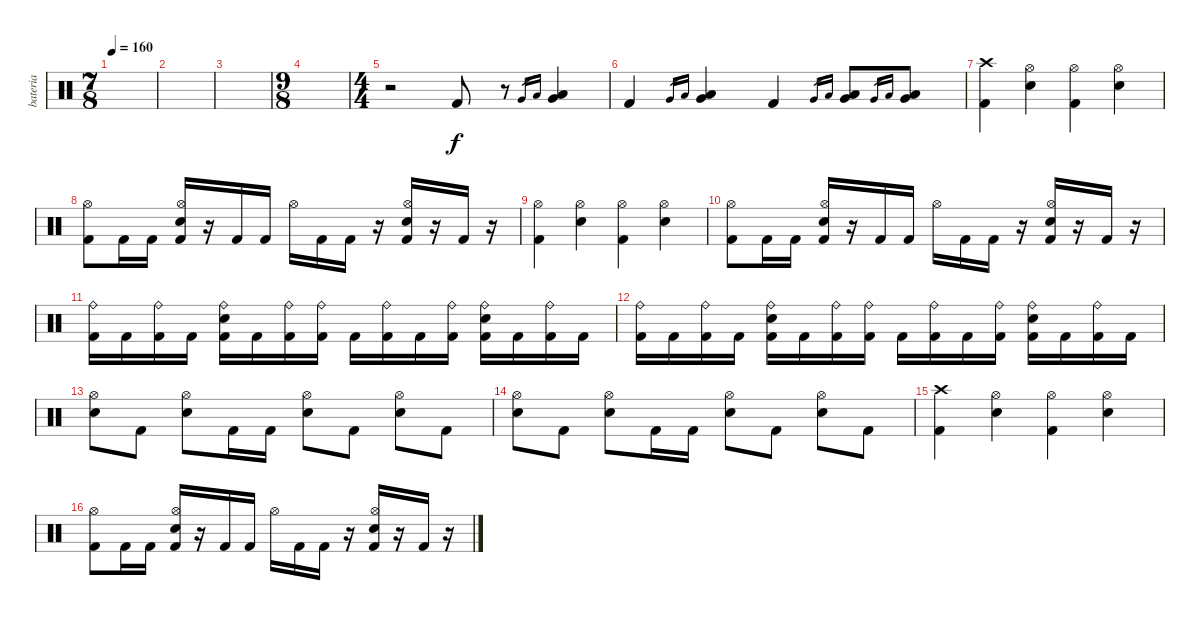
\track ("bateria" "bateria") {instrument percussion}
\staff {score}
\articulation defaults
\ts (7 8)
\tempo 160
\clef neutral
\ks c
|
|
|
\ts (9 8)
|
\ts (4 4)
r.2 "Kick (hit) 2".8 r.8 "Very Low Tom (hit)".16{gr} "Low Tom (hit)".16{gr} ("Very Low Tom (hit)" "Low Tom (hit)").4 |
"Kick (hit) 2".4 "Very Low Tom (hit)".16{gr} "Low Tom (hit)".16{gr} ("Very Low Tom (hit)" "Low Tom (hit)").4 "Kick (hit) 2".4 "Very Low Tom (hit)".16{gr} "Low Tom (hit)".16{gr} ("Very Low Tom (hit)" "Low Tom (hit)").8 "Very Low Tom (hit)".16{gr} "Low Tom (hit)".16{gr} ("Very Low Tom (hit)" "Low Tom (hit)").8 |
("Crash high (hit)" "Kick (hit) 2").4 ("Hi-Hat (open)" "Electric Snare (hit)").4 ("Hi-Hat (open)" "Kick (hit) 2").4 ("Hi-Hat (open)" "Electric Snare (hit)").4 |
("Hi-Hat (open)" "Kick (hit) 2").8 "Kick (hit) 2".16 "Kick (hit) 2".16 ("Hi-Hat (open)" "Electric Snare (hit)" "Kick (hit) 2").16 r.16 "Kick (hit) 2".16 "Kick (hit) 2".16 "Hi-Hat (open)".16 "Kick (hit) 2".16 "Kick (hit) 2".16 r.16 ("Hi-Hat (open)" "Electric Snare (hit)" "Kick (hit) 2").16 r.16 "Kick (hit) 2".16 r.16 |
("Hi-Hat (open)" "Kick (hit) 2").4 ("Hi-Hat (open)" "Electric Snare (hit)").4 ("Hi-Hat (open)" "Kick (hit) 2").4 ("Hi-Hat (open)" "Electric Snare (hit)").4 |
("Hi-Hat (open)" "Kick (hit) 2").8 "Kick (hit) 2".16 "Kick (hit) 2".16 ("Hi-Hat (open)" "Electric Snare (hit)" "Kick (hit) 2").16 r.16 "Kick (hit) 2".16 "Kick (hit) 2".16 "Hi-Hat (open)".16 "Kick (hit) 2".16 "Kick (hit) 2".16 r.16 ("Hi-Hat (open)" "Electric Snare (hit)" "Kick (hit) 2").16 r.16 "Kick (hit) 2".16 r.16 |
("Ride (bell)" "Kick (hit) 2").16 "Kick (hit) 2".16 ("Ride (bell)" "Kick (hit) 2").16 "Kick (hit) 2".16 ("Ride (bell)" "Electric Snare (hit)" "Kick (hit) 2").16 "Kick (hit) 2".16 ("Ride (bell)" "Kick (hit) 2").16 ("Ride (bell)" "Kick (hit) 2").16 "Kick (hit) 2".16 ("Ride (bell)" "Kick (hit) 2").16 "Kick (hit) 2".16 ("Ride (bell)" "Kick (hit) 2").16 ("Ride (bell)" "Electric Snare (hit)" "Kick (hit) 2").16 "Kick (hit) 2".16 ("Ride (bell)" "Kick (hit) 2").16 "Kick (hit) 2".16 |
("Ride (bell)" "Kick (hit) 2").16 "Kick (hit) 2".16 ("Ride (bell)" "Kick (hit) 2").16 "Kick (hit) 2".16 ("Ride (bell)" "Electric Snare (hit)" "Kick (hit) 2").16 "Kick (hit) 2".16 ("Ride (bell)" "Kick (hit) 2").16 ("Ride (bell)" "Kick (hit) 2").16 "Kick (hit) 2".16 ("Ride (bell)" "Kick (hit) 2").16 "Kick (hit) 2".16 ("Ride (bell)" "Kick (hit) 2").16 ("Ride (bell)" "Electric Snare (hit)" "Kick (hit) 2").16 "Kick (hit) 2".16 ("Ride (bell)" "Kick (hit) 2").16 "Kick (hit) 2".16 |
("Hi-Hat (open)" "Electric Snare (hit)").8 "Kick (hit) 2".8 ("Hi-Hat (open)" "Electric Snare (hit)").8 "Kick (hit) 2".16 "Kick (hit) 2".16 ("Hi-Hat (open)" "Electric Snare (hit)").8 "Kick (hit) 2".8 ("Hi-Hat (open)" "Electric Snare (hit)").8 "Kick (hit) 2".8 |
("Hi-Hat (open)" "Electric Snare (hit)").8 "Kick (hit) 2".8 ("Hi-Hat (open)" "Electric Snare (hit)").8 "Kick (hit) 2".16 "Kick (hit) 2".16 ("Hi-Hat (open)" "Electric Snare (hit)").8 "Kick (hit) 2".8 ("Hi-Hat (open)" "Electric Snare (hit)").8 "Kick (hit) 2".8 |
("Crash high (hit)" "Kick (hit) 2").4 ("Hi-Hat (open)" "Electric Snare (hit)").4 ("Hi-Hat (open)" "Kick (hit) 2").4 ("Hi-Hat (open)" "Electric Snare (hit)").4 |
("Hi-Hat (open)" "Kick (hit) 2").8 "Kick (hit) 2".16 "Kick (hit) 2".16 ("Hi-Hat (open)" "Electric Snare (hit)" "Kick (hit) 2").16 r.16 "Kick (hit) 2".16 "Kick (hit) 2".16 "Hi-Hat (open)".16 "Kick (hit) 2".16 "Kick (hit) 2".16 r.16 ("Hi-Hat (open)" "Electric Snare (hit)" "Kick (hit) 2").16 r.16 "Kick (hit) 2".16 r.16
